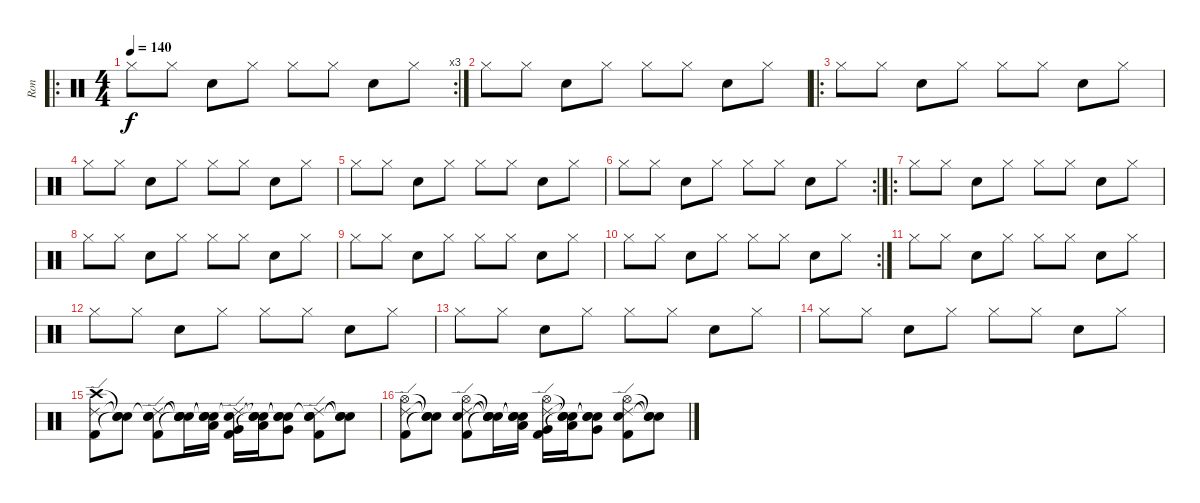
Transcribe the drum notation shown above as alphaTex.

\track ("Ron" "Ron") {instrument percussion}
\staff {score}
\articulation defaults
\ro
\rc 3
\ts (4 4)
\tempo 140
\clef neutral
\ks c "Hi-Hat (closed)".8{dy f} "Hi-Hat (closed)".8 "Electric Snare (hit)".8 "Hi-Hat (closed)".8 "Hi-Hat (closed)".8 "Hi-Hat (closed)".8 "Electric Snare (hit)".8 "Hi-Hat (closed)".8
|
"Hi-Hat (closed)".8 "Hi-Hat (closed)".8 "Electric Snare (hit)".8 "Hi-Hat (closed)".8 "Hi-Hat (closed)".8 "Hi-Hat (closed)".8 "Electric Snare (hit)".8 "Hi-Hat (closed)".8 |
\ro "Hi-Hat (closed)".8 "Hi-Hat (closed)".8 "Electric Snare (hit)".8 "Hi-Hat (closed)".8 "Hi-Hat (closed)".8 "Hi-Hat (closed)".8 "Electric Snare (hit)".8 "Hi-Hat (closed)".8
|
"Hi-Hat (closed)".8 "Hi-Hat (closed)".8 "Electric Snare (hit)".8 "Hi-Hat (closed)".8 "Hi-Hat (closed)".8 "Hi-Hat (closed)".8 "Electric Snare (hit)".8 "Hi-Hat (closed)".8 |
"Hi-Hat (closed)".8 "Hi-Hat (closed)".8 "Electric Snare (hit)".8 "Hi-Hat (closed)".8 "Hi-Hat (closed)".8 "Hi-Hat (closed)".8 "Electric Snare (hit)".8 "Hi-Hat (closed)".8 |
\rc 2 "Hi-Hat (closed)".8 "Hi-Hat (closed)".8 "Electric Snare (hit)".8 "Hi-Hat (closed)".8 "Hi-Hat (closed)".8 "Hi-Hat (closed)".8 "Electric Snare (hit)".8 "Hi-Hat (closed)".8
|
\ro "Hi-Hat (closed)".8 "Hi-Hat (closed)".8 "Electric Snare (hit)".8 "Hi-Hat (closed)".8 "Hi-Hat (closed)".8 "Hi-Hat (closed)".8 "Electric Snare (hit)".8 "Hi-Hat (closed)".8
|
"Hi-Hat (closed)".8 "Hi-Hat (closed)".8 "Electric Snare (hit)".8 "Hi-Hat (closed)".8 "Hi-Hat (closed)".8 "Hi-Hat (closed)".8 "Electric Snare (hit)".8 "Hi-Hat (closed)".8 |
"Hi-Hat (closed)".8 "Hi-Hat (closed)".8 "Electric Snare (hit)".8 "Hi-Hat (closed)".8 "Hi-Hat (closed)".8 "Hi-Hat (closed)".8 "Electric Snare (hit)".8 "Hi-Hat (closed)".8 |
\rc 2 "Hi-Hat (closed)".8 "Hi-Hat (closed)".8 "Electric Snare (hit)".8 "Hi-Hat (closed)".8 "Hi-Hat (closed)".8 "Hi-Hat (closed)".8 "Electric Snare (hit)".8 "Hi-Hat (closed)".8
|
"Hi-Hat (closed)".8 "Hi-Hat (closed)".8 "Electric Snare (hit)".8 "Hi-Hat (closed)".8 "Hi-Hat (closed)".8 "Hi-Hat (closed)".8 "Electric Snare (hit)".8 "Hi-Hat (closed)".8 |
"Hi-Hat (closed)".8 "Hi-Hat (closed)".8 "Electric Snare (hit)".8 "Hi-Hat (closed)".8 "Hi-Hat (closed)".8 "Hi-Hat (closed)".8 "Electric Snare (hit)".8 "Hi-Hat (closed)".8 |
"Hi-Hat (closed)".8 "Hi-Hat (closed)".8 "Electric Snare (hit)".8 "Hi-Hat (closed)".8 "Hi-Hat (closed)".8 "Hi-Hat (closed)".8 "Electric Snare (hit)".8 "Hi-Hat (closed)".8 |
"Hi-Hat (closed)".8 "Hi-Hat (closed)".8 "Electric Snare (hit)".8 "Hi-Hat (closed)".8 "Hi-Hat (closed)".8 "Hi-Hat (closed)".8 "Electric Snare (hit)".8 "Hi-Hat (closed)".8 |
("Crash high (hit)" "Ride (edge) 2" "Kick (hit) 2").8 ("Snare (hit)"{t} "Snare (hit)"{t} "Snare (hit)"{t}).8 ("Snare (hit)"{t} "Ride (edge) 2" "Snare (hit) 2" "Kick (hit) 2").8 ("Snare (hit)"{t} "Snare (hit)"{t} "Snare (hit)"{t} "Snare (hit)"{t}).16 ("Snare (hit)"{t} "Snare (hit)"{t} "Low Tom (hit)" "Snare (hit)"{t}).16 ("Snare (hit)"{t} "Ride (edge) 2" "Very Low Tom (hit)" "Kick (hit) 2").16 ("Snare (hit)"{t} "Snare (hit)"{t} "Low Tom (hit)" "Snare (hit)"{t}).16 ("Snare (hit)"{t} "Snare (hit)"{t} "Very Low Tom (hit)" "Snare (hit)"{t}).8 ("Snare (hit)"{t} "Ride (edge) 2" "Snare (hit) 2" "Kick (hit) 2").8 ("Snare (hit)"{t} "Snare (hit)"{t} "Snare (hit)"{t}).8 |
("Hi-Hat (open)" "Ride (edge) 2" "Kick (hit) 2").8 ("Snare (hit)"{t} "Snare (hit)"{t} "Snare (hit)"{t}).8 ("Hi-Hat (open)" "Ride (edge) 2" "Snare (hit) 2" "Kick (hit) 2").8 ("Snare (hit)"{t} "Snare (hit)"{t} "Snare (hit)"{t} "Snare (hit)"{t}).16 ("Snare (hit)"{t} "Snare (hit)"{t} "Low Tom (hit)" "Snare (hit)"{t}).16 ("Hi-Hat (open)" "Ride (edge) 2" "Very Low Tom (hit)" "Kick (hit) 2").16 ("Snare (hit)"{t} "Snare (hit)"{t} "Low Tom (hit)" "Snare (hit)"{t}).16 ("Snare (hit)"{t} "Snare (hit)"{t} "Very Low Tom (hit)" "Snare (hit)"{t}).8 ("Hi-Hat (open)" "Ride (edge) 2" "Snare (hit) 2" "Kick (hit) 2").8 ("Snare (hit)"{t} "Snare (hit)"{t} "Snare (hit)"{t}).8
